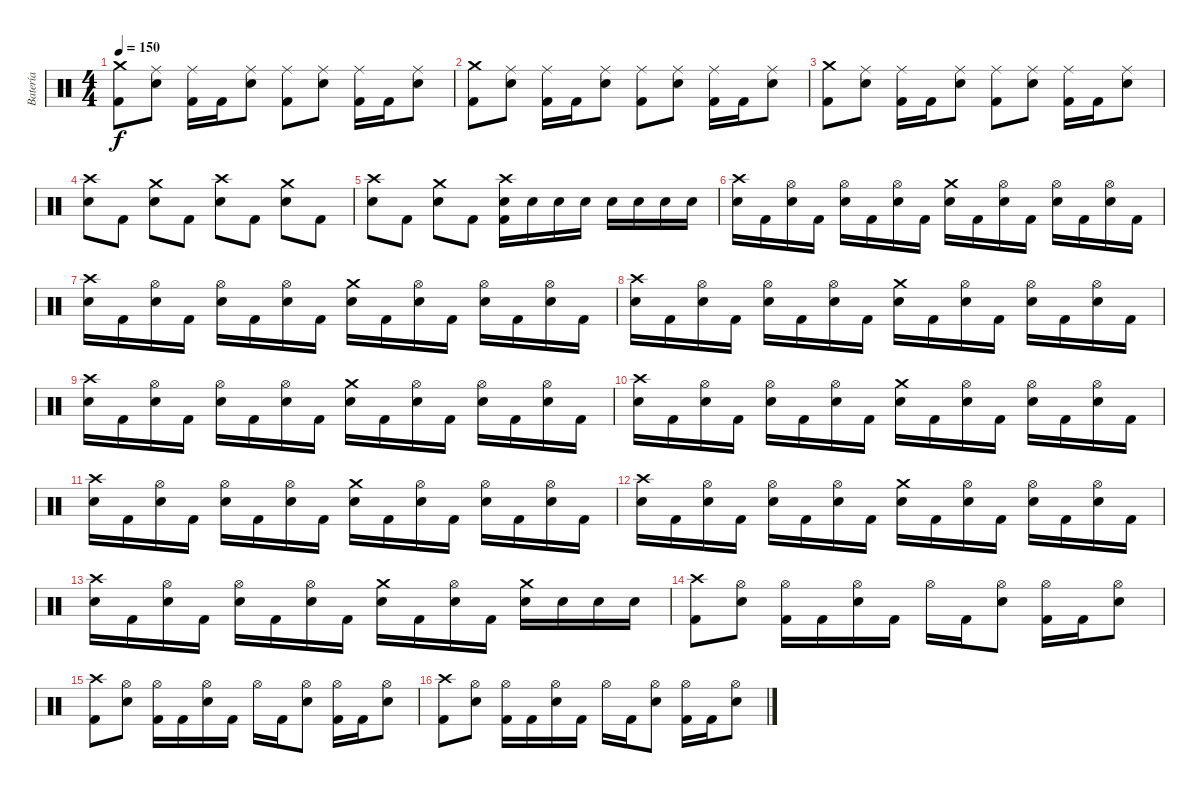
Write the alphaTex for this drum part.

\track ("Batería" "Batería") {instrument percussion}
\staff {score}
\articulation defaults
\ts (4 4)
\tempo 150
\clef neutral
\ks c
("Kick (hit) 2" "Crash medium (hit)").8{dy f} ("Electric Snare (hit)" "Ride (middle)").8 ("Kick (hit) 2" "Ride (middle)").16 "Kick (hit) 2".16 ("Electric Snare (hit)" "Ride (middle)").8 ("Kick (hit) 2" "Ride (middle)").8 ("Electric Snare (hit)" "Ride (middle)").8 ("Kick (hit) 2" "Ride (middle)").16 "Kick (hit) 2".16 ("Electric Snare (hit)" "Ride (middle)").8 |
("Kick (hit) 2" "Crash medium (hit)").8 ("Electric Snare (hit)" "Ride (middle)").8 ("Kick (hit) 2" "Ride (middle)").16 "Kick (hit) 2".16 ("Electric Snare (hit)" "Ride (middle)").8 ("Kick (hit) 2" "Ride (middle)").8 ("Electric Snare (hit)" "Ride (middle)").8 ("Kick (hit) 2" "Ride (middle)").16 "Kick (hit) 2".16 ("Electric Snare (hit)" "Ride (middle)").8 |
("Kick (hit) 2" "Crash medium (hit)").8 ("Electric Snare (hit)" "Ride (middle)").8 ("Kick (hit) 2" "Ride (middle)").16 "Kick (hit) 2".16 ("Electric Snare (hit)" "Ride (middle)").8 ("Kick (hit) 2" "Ride (middle)").8 ("Electric Snare (hit)" "Ride (middle)").8 ("Kick (hit) 2" "Ride (middle)").16 "Kick (hit) 2".16 ("Electric Snare (hit)" "Ride (middle)").8 |
("Electric Snare (hit)" "Crash high (hit)").8 "Kick (hit) 2".8 ("Electric Snare (hit)" "Crash medium (hit)").8 "Kick (hit) 2".8 ("Electric Snare (hit)" "Crash high (hit)").8 "Kick (hit) 2".8 ("Electric Snare (hit)" "Crash medium (hit)").8 "Kick (hit) 2".8 |
("Electric Snare (hit)" "Crash high (hit)").8 "Kick (hit) 2".8 ("Electric Snare (hit)" "Crash medium (hit)").8 "Kick (hit) 2".8 ("Kick (hit) 2" "Crash high (hit)" "Electric Snare (hit)").16 "Electric Snare (hit)".16 "Electric Snare (hit)".16 "Electric Snare (hit)".16 "Electric Snare (hit)".16 "Electric Snare (hit)".16 "Electric Snare (hit)".16 "Electric Snare (hit)".16 |
("Electric Snare (hit)" "Crash high (hit)").16 "Kick (hit) 2".16 ("Electric Snare (hit)" "Hi-Hat (open)").16 "Kick (hit) 2".16 ("Electric Snare (hit)" "Hi-Hat (open)").16 "Kick (hit) 2".16 ("Electric Snare (hit)" "Hi-Hat (open)").16 "Kick (hit) 2".16 ("Electric Snare (hit)" "Crash medium (hit)").16 "Kick (hit) 2".16 ("Electric Snare (hit)" "Hi-Hat (open)").16 "Kick (hit) 2".16 ("Electric Snare (hit)" "Hi-Hat (open)").16 "Kick (hit) 2".16 ("Electric Snare (hit)" "Hi-Hat (open)").16 "Kick (hit) 2".16 |
("Electric Snare (hit)" "Crash high (hit)").16 "Kick (hit) 2".16 ("Electric Snare (hit)" "Hi-Hat (open)").16 "Kick (hit) 2".16 ("Electric Snare (hit)" "Hi-Hat (open)").16 "Kick (hit) 2".16 ("Electric Snare (hit)" "Hi-Hat (open)").16 "Kick (hit) 2".16 ("Electric Snare (hit)" "Crash medium (hit)").16 "Kick (hit) 2".16 ("Electric Snare (hit)" "Hi-Hat (open)").16 "Kick (hit) 2".16 ("Electric Snare (hit)" "Hi-Hat (open)").16 "Kick (hit) 2".16 ("Electric Snare (hit)" "Hi-Hat (open)").16 "Kick (hit) 2".16 |
("Electric Snare (hit)" "Crash high (hit)").16 "Kick (hit) 2".16 ("Electric Snare (hit)" "Hi-Hat (open)").16 "Kick (hit) 2".16 ("Electric Snare (hit)" "Hi-Hat (open)").16 "Kick (hit) 2".16 ("Electric Snare (hit)" "Hi-Hat (open)").16 "Kick (hit) 2".16 ("Electric Snare (hit)" "Crash medium (hit)").16 "Kick (hit) 2".16 ("Electric Snare (hit)" "Hi-Hat (open)").16 "Kick (hit) 2".16 ("Electric Snare (hit)" "Hi-Hat (open)").16 "Kick (hit) 2".16 ("Electric Snare (hit)" "Hi-Hat (open)").16 "Kick (hit) 2".16 |
("Electric Snare (hit)" "Crash high (hit)").16 "Kick (hit) 2".16 ("Electric Snare (hit)" "Hi-Hat (open)").16 "Kick (hit) 2".16 ("Electric Snare (hit)" "Hi-Hat (open)").16 "Kick (hit) 2".16 ("Electric Snare (hit)" "Hi-Hat (open)").16 "Kick (hit) 2".16 ("Electric Snare (hit)" "Crash medium (hit)").16 "Kick (hit) 2".16 ("Electric Snare (hit)" "Hi-Hat (open)").16 "Kick (hit) 2".16 ("Electric Snare (hit)" "Hi-Hat (open)").16 "Kick (hit) 2".16 ("Electric Snare (hit)" "Hi-Hat (open)").16 "Kick (hit) 2".16 |
("Electric Snare (hit)" "Crash high (hit)").16 "Kick (hit) 2".16 ("Electric Snare (hit)" "Hi-Hat (open)").16 "Kick (hit) 2".16 ("Electric Snare (hit)" "Hi-Hat (open)").16 "Kick (hit) 2".16 ("Electric Snare (hit)" "Hi-Hat (open)").16 "Kick (hit) 2".16 ("Electric Snare (hit)" "Crash medium (hit)").16 "Kick (hit) 2".16 ("Electric Snare (hit)" "Hi-Hat (open)").16 "Kick (hit) 2".16 ("Electric Snare (hit)" "Hi-Hat (open)").16 "Kick (hit) 2".16 ("Electric Snare (hit)" "Hi-Hat (open)").16 "Kick (hit) 2".16 |
("Electric Snare (hit)" "Crash high (hit)").16 "Kick (hit) 2".16 ("Electric Snare (hit)" "Hi-Hat (open)").16 "Kick (hit) 2".16 ("Electric Snare (hit)" "Hi-Hat (open)").16 "Kick (hit) 2".16 ("Electric Snare (hit)" "Hi-Hat (open)").16 "Kick (hit) 2".16 ("Electric Snare (hit)" "Crash medium (hit)").16 "Kick (hit) 2".16 ("Electric Snare (hit)" "Hi-Hat (open)").16 "Kick (hit) 2".16 ("Electric Snare (hit)" "Hi-Hat (open)").16 "Kick (hit) 2".16 ("Electric Snare (hit)" "Hi-Hat (open)").16 "Kick (hit) 2".16 |
("Electric Snare (hit)" "Crash high (hit)").16 "Kick (hit) 2".16 ("Electric Snare (hit)" "Hi-Hat (open)").16 "Kick (hit) 2".16 ("Electric Snare (hit)" "Hi-Hat (open)").16 "Kick (hit) 2".16 ("Electric Snare (hit)" "Hi-Hat (open)").16 "Kick (hit) 2".16 ("Electric Snare (hit)" "Crash medium (hit)").16 "Kick (hit) 2".16 ("Electric Snare (hit)" "Hi-Hat (open)").16 "Kick (hit) 2".16 ("Electric Snare (hit)" "Hi-Hat (open)").16 "Kick (hit) 2".16 ("Electric Snare (hit)" "Hi-Hat (open)").16 "Kick (hit) 2".16 |
("Electric Snare (hit)" "Crash high (hit)").16 "Kick (hit) 2".16 ("Electric Snare (hit)" "Hi-Hat (open)").16 "Kick (hit) 2".16 ("Electric Snare (hit)" "Hi-Hat (open)").16 "Kick (hit) 2".16 ("Electric Snare (hit)" "Hi-Hat (open)").16 "Kick (hit) 2".16 ("Electric Snare (hit)" "Crash medium (hit)").16 "Kick (hit) 2".16 ("Electric Snare (hit)" "Hi-Hat (open)").16 "Kick (hit) 2".16 ("Electric Snare (hit)" "Crash medium (hit)").16 "Electric Snare (hit)".16 "Electric Snare (hit)".16 "Electric Snare (hit)".16 |
("Kick (hit) 2" "Crash high (hit)").8 ("Electric Snare (hit)" "Hi-Hat (open)").8 ("Kick (hit) 2" "Hi-Hat (open)").16 "Kick (hit) 2".16 ("Electric Snare (hit)" "Hi-Hat (open)").16 "Kick (hit) 2".16 "Hi-Hat (open)".16 "Kick (hit) 2".16 ("Electric Snare (hit)" "Hi-Hat (open)").8 ("Kick (hit) 2" "Hi-Hat (open)").16 "Kick (hit) 2".16 ("Electric Snare (hit)" "Hi-Hat (open)").8 |
("Kick (hit) 2" "Crash high (hit)").8 ("Electric Snare (hit)" "Hi-Hat (open)").8 ("Kick (hit) 2" "Hi-Hat (open)").16 "Kick (hit) 2".16 ("Electric Snare (hit)" "Hi-Hat (open)").16 "Kick (hit) 2".16 "Hi-Hat (open)".16 "Kick (hit) 2".16 ("Electric Snare (hit)" "Hi-Hat (open)").8 ("Kick (hit) 2" "Hi-Hat (open)").16 "Kick (hit) 2".16 ("Electric Snare (hit)" "Hi-Hat (open)").8 |
("Kick (hit) 2" "Crash high (hit)").8 ("Electric Snare (hit)" "Hi-Hat (open)").8 ("Kick (hit) 2" "Hi-Hat (open)").16 "Kick (hit) 2".16 ("Electric Snare (hit)" "Hi-Hat (open)").16 "Kick (hit) 2".16 "Hi-Hat (open)".16 "Kick (hit) 2".16 ("Electric Snare (hit)" "Hi-Hat (open)").8 ("Kick (hit) 2" "Hi-Hat (open)").16 "Kick (hit) 2".16 ("Electric Snare (hit)" "Hi-Hat (open)").8
